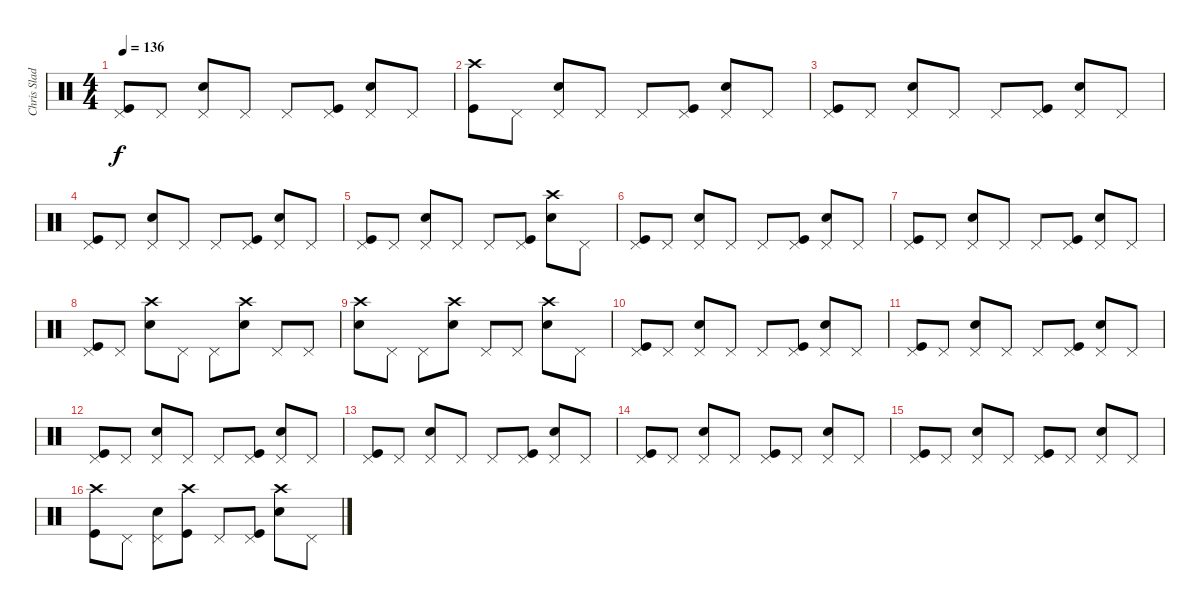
\track ("Chris Slade" "Chris Slad") {instrument percussion}
\staff {score}
\articulation defaults
\ts (4 4)
\tempo 136
\clef neutral
\ks c
("Pedal Hi-Hat (hit)" "Kick (hit)").8{dy f} "Pedal Hi-Hat (hit)".8 ("Pedal Hi-Hat (hit)" "Snare (hit) 2").8 "Pedal Hi-Hat (hit)".8 "Pedal Hi-Hat (hit)".8 ("Pedal Hi-Hat (hit)" "Kick (hit)").8 ("Pedal Hi-Hat (hit)" "Snare (hit) 2").8 "Pedal Hi-Hat (hit)".8 |
("Crash high (hit)" "Kick (hit)").8 "Pedal Hi-Hat (hit)".8 ("Pedal Hi-Hat (hit)" "Snare (hit) 2").8 "Pedal Hi-Hat (hit)".8 "Pedal Hi-Hat (hit)".8 ("Pedal Hi-Hat (hit)" "Kick (hit)").8 ("Pedal Hi-Hat (hit)" "Snare (hit) 2").8 "Pedal Hi-Hat (hit)".8 |
("Pedal Hi-Hat (hit)" "Kick (hit)").8 "Pedal Hi-Hat (hit)".8 ("Pedal Hi-Hat (hit)" "Snare (hit) 2").8 "Pedal Hi-Hat (hit)".8 "Pedal Hi-Hat (hit)".8 ("Pedal Hi-Hat (hit)" "Kick (hit)").8 ("Pedal Hi-Hat (hit)" "Snare (hit) 2").8 "Pedal Hi-Hat (hit)".8 |
("Pedal Hi-Hat (hit)" "Kick (hit)").8 "Pedal Hi-Hat (hit)".8 ("Pedal Hi-Hat (hit)" "Snare (hit) 2").8 "Pedal Hi-Hat (hit)".8 "Pedal Hi-Hat (hit)".8 ("Pedal Hi-Hat (hit)" "Kick (hit)").8 ("Pedal Hi-Hat (hit)" "Snare (hit) 2").8 "Pedal Hi-Hat (hit)".8 |
("Pedal Hi-Hat (hit)" "Kick (hit)").8 "Pedal Hi-Hat (hit)".8 ("Pedal Hi-Hat (hit)" "Snare (hit) 2").8 "Pedal Hi-Hat (hit)".8 "Pedal Hi-Hat (hit)".8 ("Pedal Hi-Hat (hit)" "Kick (hit)").8 ("Crash high (hit)" "Snare (hit) 2").8 "Pedal Hi-Hat (hit)".8 |
("Pedal Hi-Hat (hit)" "Kick (hit)").8 "Pedal Hi-Hat (hit)".8 ("Pedal Hi-Hat (hit)" "Snare (hit) 2").8 "Pedal Hi-Hat (hit)".8 "Pedal Hi-Hat (hit)".8 ("Pedal Hi-Hat (hit)" "Kick (hit)").8 ("Pedal Hi-Hat (hit)" "Snare (hit) 2").8 "Pedal Hi-Hat (hit)".8 |
("Pedal Hi-Hat (hit)" "Kick (hit)").8 "Pedal Hi-Hat (hit)".8 ("Pedal Hi-Hat (hit)" "Snare (hit) 2").8 "Pedal Hi-Hat (hit)".8 "Pedal Hi-Hat (hit)".8 ("Pedal Hi-Hat (hit)" "Kick (hit)").8 ("Pedal Hi-Hat (hit)" "Snare (hit) 2").8 "Pedal Hi-Hat (hit)".8 |
("Pedal Hi-Hat (hit)" "Kick (hit)").8 "Pedal Hi-Hat (hit)".8 ("Crash high (hit)" "Snare (hit) 2").8 "Pedal Hi-Hat (hit)".8 "Pedal Hi-Hat (hit)".8 ("Crash high (hit)" "Snare (hit) 2").8 "Pedal Hi-Hat (hit)".8 "Pedal Hi-Hat (hit)".8 |
("Crash high (hit)" "Snare (hit) 2").8 "Pedal Hi-Hat (hit)".8 "Pedal Hi-Hat (hit)".8 ("Crash high (hit)" "Snare (hit) 2").8 "Pedal Hi-Hat (hit)".8 "Pedal Hi-Hat (hit)".8 ("Crash high (hit)" "Snare (hit) 2").8 "Pedal Hi-Hat (hit)".8 |
("Pedal Hi-Hat (hit)" "Kick (hit)").8 "Pedal Hi-Hat (hit)".8 ("Pedal Hi-Hat (hit)" "Snare (hit) 2").8 "Pedal Hi-Hat (hit)".8 "Pedal Hi-Hat (hit)".8 ("Pedal Hi-Hat (hit)" "Kick (hit)").8 ("Pedal Hi-Hat (hit)" "Snare (hit) 2").8 "Pedal Hi-Hat (hit)".8 |
("Pedal Hi-Hat (hit)" "Kick (hit)").8 "Pedal Hi-Hat (hit)".8 ("Pedal Hi-Hat (hit)" "Snare (hit) 2").8 "Pedal Hi-Hat (hit)".8 "Pedal Hi-Hat (hit)".8 ("Pedal Hi-Hat (hit)" "Kick (hit)").8 ("Pedal Hi-Hat (hit)" "Snare (hit) 2").8 "Pedal Hi-Hat (hit)".8 |
("Pedal Hi-Hat (hit)" "Kick (hit)").8 "Pedal Hi-Hat (hit)".8 ("Pedal Hi-Hat (hit)" "Snare (hit) 2").8 "Pedal Hi-Hat (hit)".8 "Pedal Hi-Hat (hit)".8 ("Pedal Hi-Hat (hit)" "Kick (hit)").8 ("Pedal Hi-Hat (hit)" "Snare (hit) 2").8 "Pedal Hi-Hat (hit)".8 |
("Pedal Hi-Hat (hit)" "Kick (hit)").8 "Pedal Hi-Hat (hit)".8 ("Pedal Hi-Hat (hit)" "Snare (hit) 2").8 "Pedal Hi-Hat (hit)".8 "Pedal Hi-Hat (hit)".8 ("Pedal Hi-Hat (hit)" "Kick (hit)").8 ("Pedal Hi-Hat (hit)" "Snare (hit) 2").8 "Pedal Hi-Hat (hit)".8 |
("Pedal Hi-Hat (hit)" "Kick (hit)").8 "Pedal Hi-Hat (hit)".8 ("Pedal Hi-Hat (hit)" "Snare (hit) 2").8 "Pedal Hi-Hat (hit)".8 ("Pedal Hi-Hat (hit)" "Kick (hit)").8 "Pedal Hi-Hat (hit)".8 ("Pedal Hi-Hat (hit)" "Snare (hit) 2").8 "Pedal Hi-Hat (hit)".8 |
("Pedal Hi-Hat (hit)" "Kick (hit)").8 "Pedal Hi-Hat (hit)".8 ("Pedal Hi-Hat (hit)" "Snare (hit) 2").8 "Pedal Hi-Hat (hit)".8 ("Pedal Hi-Hat (hit)" "Kick (hit)").8 "Pedal Hi-Hat (hit)".8 ("Pedal Hi-Hat (hit)" "Snare (hit) 2").8 "Pedal Hi-Hat (hit)".8 |
("Crash high (hit)" "Kick (hit)").8 "Pedal Hi-Hat (hit)".8 ("Pedal Hi-Hat (hit)" "Snare (hit) 2").8 ("Crash high (hit)" "Kick (hit)").8 "Pedal Hi-Hat (hit)".8 ("Pedal Hi-Hat (hit)" "Kick (hit)").8 ("Crash high (hit)" "Snare (hit) 2").8 "Pedal Hi-Hat (hit)".8
